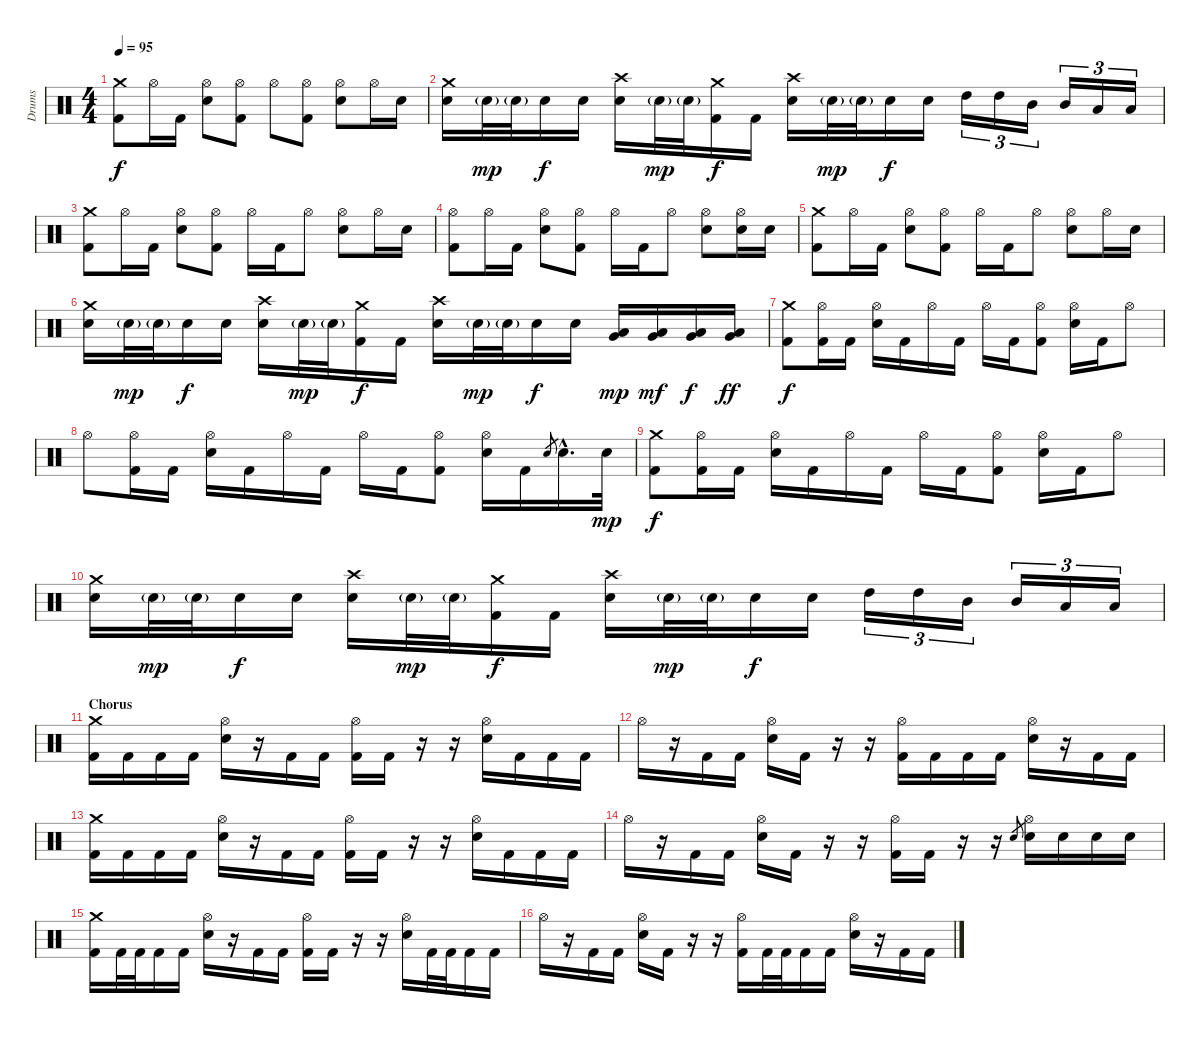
\track ("Drums" "Drums") {instrument percussion}
\staff {score}
\articulation defaults
\ts (4 4)
\tempo 95
\clef neutral
\ks c
("Crash medium (hit)" "Kick (hit) 2").8{dy f} "Hi-Hat (open)".16 "Kick (hit) 2".16 ("Hi-Hat (open)" "Snare (hit) 2").8 ("Hi-Hat (open)" "Kick (hit) 2").8 "Hi-Hat (open)".8 ("Hi-Hat (open)" "Kick (hit) 2").8 ("Hi-Hat (open)" "Snare (hit) 2").8 "Hi-Hat (open)".16 "Snare (hit) 2".16 |
("Crash medium (hit)" "Snare (hit) 2").16 "Snare (hit) 2"{g}.32{dy mp} "Snare (hit) 2"{g}.32 "Snare (hit) 2".16{dy f} "Snare (hit) 2".16 ("Crash high (hit)" "Snare (hit) 2").16 "Snare (hit) 2"{g}.32{dy mp} "Snare (hit) 2"{g}.32 ("Crash medium (hit)" "Kick (hit) 2").16{dy f} "Kick (hit) 2".16 ("Crash high (hit)" "Snare (hit) 2").16 "Snare (hit) 2"{g}.32{dy mp} "Snare (hit) 2"{g}.32 "Snare (hit) 2".16{dy f} "Snare (hit) 2".16 "High Tom (hit)".16{tu (3 2)} "High Tom (hit)".16{tu (3 2)} "Mid Tom (hit)".16{tu (3 2)} "Mid Tom (hit)".16{tu (3 2)} "Low Tom (hit)".16{tu (3 2)} "Low Tom (hit)".16{tu (3 2)} |
("Crash medium (hit)" "Kick (hit) 2").8 "Hi-Hat (open)".16 "Kick (hit) 2".16 ("Hi-Hat (open)" "Snare (hit) 2").8 ("Hi-Hat (open)" "Kick (hit) 2").8 "Hi-Hat (open)".16 "Kick (hit) 2".16 "Hi-Hat (open)".8 ("Hi-Hat (open)" "Snare (hit) 2").8 "Hi-Hat (open)".16 "Snare (hit) 2".16 |
("Hi-Hat (open)" "Kick (hit) 2").8 "Hi-Hat (open)".16 "Kick (hit) 2".16 ("Hi-Hat (open)" "Snare (hit) 2").8 ("Hi-Hat (open)" "Kick (hit) 2").8 "Hi-Hat (open)".16 "Kick (hit) 2".16 "Hi-Hat (open)".8 ("Hi-Hat (open)" "Snare (hit) 2").8 ("Hi-Hat (open)" "Snare (hit) 2").16 "Snare (hit) 2".16 |
("Crash medium (hit)" "Kick (hit) 2").8 "Hi-Hat (open)".16 "Kick (hit) 2".16 ("Hi-Hat (open)" "Snare (hit) 2").8 ("Hi-Hat (open)" "Kick (hit) 2").8 "Hi-Hat (open)".16 "Kick (hit) 2".16 "Hi-Hat (open)".8 ("Hi-Hat (open)" "Snare (hit) 2").8 "Hi-Hat (open)".16 "Snare (hit) 2".16 |
("Crash medium (hit)" "Snare (hit) 2").16 "Snare (hit) 2"{g}.32{dy mp} "Snare (hit) 2"{g}.32 "Snare (hit) 2".16{dy f} "Snare (hit) 2".16 ("Crash high (hit)" "Snare (hit) 2").16 "Snare (hit) 2"{g}.32{dy mp} "Snare (hit) 2"{g}.32 ("Crash medium (hit)" "Kick (hit) 2").16{dy f} "Kick (hit) 2".16 ("Crash high (hit)" "Snare (hit) 2").16 "Snare (hit) 2"{g}.32{dy mp} "Snare (hit) 2"{g}.32 "Snare (hit) 2".16{dy f} "Snare (hit) 2".16 ("Very Low Tom (hit)" "Low Floor Tom (hit)").16{dy mp} ("Very Low Tom (hit)" "Low Floor Tom (hit)").16{dy mf} ("Very Low Tom (hit)" "Low Floor Tom (hit)").16{dy f} ("Very Low Tom (hit)" "Low Floor Tom (hit)").16{dy ff} |
("Crash medium (hit)" "Kick (hit) 2").8{dy f} ("Hi-Hat (open)" "Kick (hit) 2").16 "Kick (hit) 2".16 ("Hi-Hat (open)" "Snare (hit) 2").16 "Kick (hit) 2".16 "Hi-Hat (open)".16 "Kick (hit) 2".16 "Hi-Hat (open)".16 "Kick (hit) 2".16 ("Hi-Hat (open)" "Kick (hit) 2").8 ("Hi-Hat (open)" "Snare (hit) 2").16 "Kick (hit) 2".16 "Hi-Hat (open)".8 |
"Hi-Hat (open)".8 ("Hi-Hat (open)" "Kick (hit) 2").16 "Kick (hit) 2".16 ("Hi-Hat (open)" "Snare (hit) 2").16 "Kick (hit) 2".16 "Hi-Hat (open)".16 "Kick (hit) 2".16 "Hi-Hat (open)".16 "Kick (hit) 2".16 ("Hi-Hat (open)" "Kick (hit) 2").8 ("Hi-Hat (open)" "Snare (hit) 2").16 "Kick (hit) 2".16 "Snare (hit) 2".8{gr} "Snare (hit) 2"{hac}.16{d} "Snare (hit) 2".32{dy mp} |
("Crash medium (hit)" "Kick (hit) 2").8{dy f} ("Hi-Hat (open)" "Kick (hit) 2").16 "Kick (hit) 2".16 ("Hi-Hat (open)" "Snare (hit) 2").16 "Kick (hit) 2".16 "Hi-Hat (open)".16 "Kick (hit) 2".16 "Hi-Hat (open)".16 "Kick (hit) 2".16 ("Hi-Hat (open)" "Kick (hit) 2").8 ("Hi-Hat (open)" "Snare (hit) 2").16 "Kick (hit) 2".16 "Hi-Hat (open)".8 |
("Crash medium (hit)" "Snare (hit) 2").16 "Snare (hit) 2"{g}.32{dy mp} "Snare (hit) 2"{g}.32 "Snare (hit) 2".16{dy f} "Snare (hit) 2".16 ("Crash high (hit)" "Snare (hit) 2").16 "Snare (hit) 2"{g}.32{dy mp} "Snare (hit) 2"{g}.32 ("Crash medium (hit)" "Kick (hit) 2").16{dy f} "Kick (hit) 2".16 ("Crash high (hit)" "Snare (hit) 2").16 "Snare (hit) 2"{g}.32{dy mp} "Snare (hit) 2"{g}.32 "Snare (hit) 2".16{dy f} "Snare (hit) 2".16 "High Tom (hit)".16{tu (3 2)} "High Tom (hit)".16{tu (3 2)} "Mid Tom (hit)".16{tu (3 2)} "Mid Tom (hit)".16{tu (3 2)} "Low Tom (hit)".16{tu (3 2)} "Low Tom (hit)".16{tu (3 2)} |
\section ("" "Chorus")
("Crash medium (hit)" "Kick (hit) 2").16 "Kick (hit) 2".16 "Kick (hit) 2".16 "Kick (hit) 2".16 ("Hi-Hat (open)" "Snare (hit) 2").16 r.16 "Kick (hit) 2".16 "Kick (hit) 2".16 ("Hi-Hat (open)" "Kick (hit) 2").16 "Kick (hit) 2".16 r.16 r.16 ("Hi-Hat (open)" "Snare (hit) 2").16 "Kick (hit) 2".16 "Kick (hit) 2".16 "Kick (hit) 2".16 |
"Hi-Hat (open)".16 r.16 "Kick (hit) 2".16 "Kick (hit) 2".16 ("Hi-Hat (open)" "Snare (hit) 2").16 "Kick (hit) 2".16 r.16 r.16 ("Hi-Hat (open)" "Kick (hit) 2").16 "Kick (hit) 2".16 "Kick (hit) 2".16 "Kick (hit) 2".16 ("Hi-Hat (open)" "Snare (hit) 2").16 r.16 "Kick (hit) 2".16 "Kick (hit) 2".16 |
("Crash medium (hit)" "Kick (hit) 2").16 "Kick (hit) 2".16 "Kick (hit) 2".16 "Kick (hit) 2".16 ("Hi-Hat (open)" "Snare (hit) 2").16 r.16 "Kick (hit) 2".16 "Kick (hit) 2".16 ("Hi-Hat (open)" "Kick (hit) 2").16 "Kick (hit) 2".16 r.16 r.16 ("Hi-Hat (open)" "Snare (hit) 2").16 "Kick (hit) 2".16 "Kick (hit) 2".16 "Kick (hit) 2".16 |
"Hi-Hat (open)".16 r.16 "Kick (hit) 2".16 "Kick (hit) 2".16 ("Hi-Hat (open)" "Snare (hit) 2").16 "Kick (hit) 2".16 r.16 r.16 ("Hi-Hat (open)" "Kick (hit) 2").16 "Kick (hit) 2".16 r.16 r.16 "Snare (hit) 2".8{gr} ("Hi-Hat (open)" "Snare (hit) 2").16 "Snare (hit) 2".16 "Snare (hit) 2".16 "Snare (hit) 2".16 |
("Crash medium (hit)" "Kick (hit) 2").16 "Kick (hit) 2".32 "Kick (hit) 2".32 "Kick (hit) 2".16 "Kick (hit) 2".16 ("Hi-Hat (open)" "Snare (hit) 2").16 r.16 "Kick (hit) 2".16 "Kick (hit) 2".16 ("Hi-Hat (open)" "Kick (hit) 2").16 "Kick (hit) 2".16 r.16 r.16 ("Hi-Hat (open)" "Snare (hit) 2").16 "Kick (hit) 2".32 "Kick (hit) 2".32 "Kick (hit) 2".16 "Kick (hit) 2".16 |
"Hi-Hat (open)".16 r.16 "Kick (hit) 2".16 "Kick (hit) 2".16 ("Hi-Hat (open)" "Snare (hit) 2").16 "Kick (hit) 2".16 r.16 r.16 ("Hi-Hat (open)" "Kick (hit) 2").16 "Kick (hit) 2".32 "Kick (hit) 2".32 "Kick (hit) 2".16 "Kick (hit) 2".16 ("Hi-Hat (open)" "Snare (hit) 2").16 r.16 "Kick (hit) 2".16 "Kick (hit) 2".16
